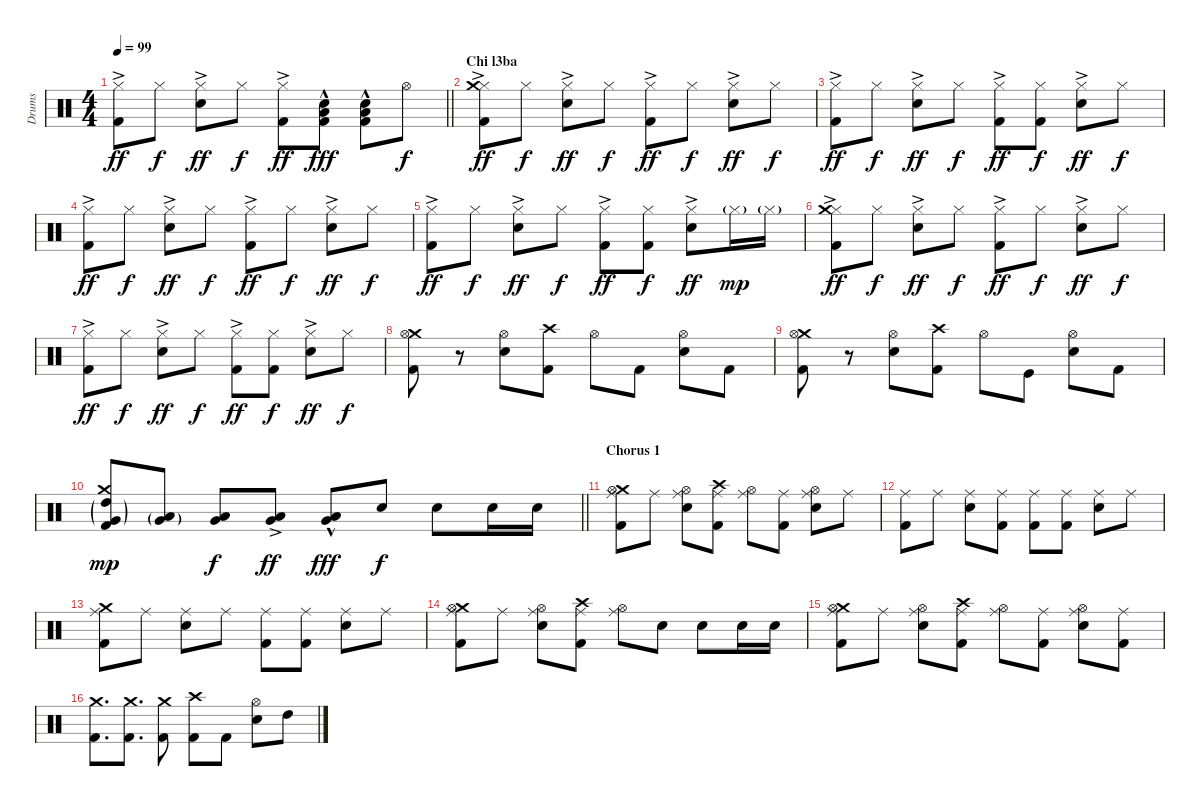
\track ("Drums" "Drums") {instrument percussion}
\staff {score}
\articulation defaults
\ts (4 4)
\tempo 99
\clef neutral
\barLineRight lightlight
\ks c
("Hi-Hat (closed)"{ac} "Kick (hit) 2").8{dy ff} "Hi-Hat (closed)".8{dy f} ("Hi-Hat (closed)"{ac} "Electric Snare (hit)").8{dy ff} "Hi-Hat (closed)".8{dy f} ("Hi-Hat (closed)"{ac} "Kick (hit) 2").8{dy ff} ("Electric Snare (hit)"{hac} "Kick (hit) 2" "Low Floor Tom (hit)").8{dy fff} ("Electric Snare (hit)"{hac} "Kick (hit) 2" "Low Floor Tom (hit)").8 "Hi-Hat (open)".8{dy f} |
\section ("" "Chi l3ba")
("Hi-Hat (closed)"{ac} "Kick (hit) 2" "Crash medium (hit)").8{dy ff} "Hi-Hat (closed)".8{dy f} ("Hi-Hat (closed)"{ac} "Electric Snare (hit)").8{dy ff} "Hi-Hat (closed)".8{dy f} ("Hi-Hat (closed)"{ac} "Kick (hit) 2").8{dy ff} "Hi-Hat (closed)".8{dy f} ("Hi-Hat (closed)"{ac} "Electric Snare (hit)").8{dy ff} "Hi-Hat (closed)".8{dy f} |
("Hi-Hat (closed)"{ac} "Kick (hit) 2").8{dy ff} "Hi-Hat (closed)".8{dy f} ("Hi-Hat (closed)"{ac} "Electric Snare (hit)").8{dy ff} "Hi-Hat (closed)".8{dy f} ("Hi-Hat (closed)"{ac} "Kick (hit) 2").8{dy ff} ("Hi-Hat (closed)" "Kick (hit) 2").8{dy f} ("Hi-Hat (closed)"{ac} "Electric Snare (hit)").8{dy ff} "Hi-Hat (closed)".8{dy f} |
("Hi-Hat (closed)"{ac} "Kick (hit) 2").8{dy ff} "Hi-Hat (closed)".8{dy f} ("Hi-Hat (closed)"{ac} "Electric Snare (hit)").8{dy ff} "Hi-Hat (closed)".8{dy f} ("Hi-Hat (closed)"{ac} "Kick (hit) 2").8{dy ff} "Hi-Hat (closed)".8{dy f} ("Hi-Hat (closed)"{ac} "Electric Snare (hit)").8{dy ff} "Hi-Hat (closed)".8{dy f} |
("Hi-Hat (closed)"{ac} "Kick (hit) 2").8{dy ff} "Hi-Hat (closed)".8{dy f} ("Hi-Hat (closed)"{ac} "Electric Snare (hit)").8{dy ff} "Hi-Hat (closed)".8{dy f} ("Hi-Hat (closed)"{ac} "Kick (hit) 2").8{dy ff} ("Hi-Hat (closed)" "Kick (hit) 2").8{dy f} ("Hi-Hat (closed)"{ac} "Electric Snare (hit)").8{dy ff} "Hi-Hat (closed)"{g}.16{dy mp} "Hi-Hat (closed)"{g}.16 |
("Hi-Hat (closed)"{ac} "Kick (hit) 2" "Crash medium (hit)").8{dy ff} "Hi-Hat (closed)".8{dy f} ("Hi-Hat (closed)"{ac} "Electric Snare (hit)").8{dy ff} "Hi-Hat (closed)".8{dy f} ("Hi-Hat (closed)"{ac} "Kick (hit) 2").8{dy ff} "Hi-Hat (closed)".8{dy f} ("Hi-Hat (closed)"{ac} "Electric Snare (hit)").8{dy ff} "Hi-Hat (closed)".8{dy f} |
("Hi-Hat (closed)"{ac} "Kick (hit) 2").8{dy ff} "Hi-Hat (closed)".8{dy f} ("Hi-Hat (closed)"{ac} "Electric Snare (hit)").8{dy ff} "Hi-Hat (closed)".8{dy f} ("Hi-Hat (closed)"{ac} "Kick (hit) 2").8{dy ff} ("Hi-Hat (closed)" "Kick (hit) 2").8{dy f} ("Hi-Hat (closed)"{ac} "Electric Snare (hit)").8{dy ff} "Hi-Hat (closed)".8{dy f} |
("Crash medium (hit)" "Kick (hit) 2" "Hi-Hat (open)").8 r.8 ("Electric Snare (hit)" "Hi-Hat (open)").8 ("Crash high (hit)" "Kick (hit) 2").8 "Hi-Hat (open)".8 "Kick (hit) 2".8 ("Electric Snare (hit)" "Hi-Hat (open)").8 "Kick (hit) 2".8 |
("Crash medium (hit)" "Kick (hit) 2" "Hi-Hat (open)").8 r.8 ("Electric Snare (hit)" "Hi-Hat (open)").8 ("Crash high (hit)" "Kick (hit) 2").8 "Hi-Hat (open)".8 "Kick (hit)".8 ("Electric Snare (hit)" "Hi-Hat (open)").8 "Kick (hit) 2".8 |
\barLineRight lightlight
("Crash medium (hit)" "Very Low Tom (hit)"{g} "High Tom (hit)"{g} "Kick (hit) 2").8{dy mp} ("Very Low Tom (hit)"{g} "Low Tom (hit)"{g}).8 ("Very Low Tom (hit)" "Low Tom (hit)").8{dy f} ("Very Low Tom (hit)"{ac} "Low Tom (hit)"{ac}).8{dy ff} ("Very Low Tom (hit)"{hac} "Low Floor Tom (hit)"{hac}).8{dy fff} "Electric Snare (hit)".8{dy f} "Electric Snare (hit)".8 "Electric Snare (hit)".16 "Electric Snare (hit)".16 |
\section ("" "Chorus 1")
("Crash medium (hit)" "Kick (hit) 2" "Hi-Hat (open)" "Ride (middle)").8 "Ride (middle)".8 ("Electric Snare (hit)" "Hi-Hat (open)" "Ride (middle)").8 ("Crash high (hit)" "Kick (hit) 2" "Ride (middle)").8 ("Hi-Hat (open)" "Ride (middle)").8 ("Kick (hit) 2" "Ride (middle)").8 ("Electric Snare (hit)" "Hi-Hat (open)" "Ride (middle)").8 "Ride (middle)".8 |
("Kick (hit) 2" "Ride (middle)").8 "Ride (middle)".8 ("Electric Snare (hit)" "Ride (middle)").8 ("Kick (hit) 2" "Ride (middle)").8 ("Kick (hit) 2" "Ride (middle)").8 ("Kick (hit) 2" "Ride (middle)").8 ("Electric Snare (hit)" "Ride (middle)").8 "Ride (middle)".8 |
("Crash medium (hit)" "Kick (hit) 2" "Ride (middle)").8 "Ride (middle)".8 ("Electric Snare (hit)" "Ride (middle)").8 "Ride (middle)".8 ("Kick (hit) 2" "Ride (middle)").8 ("Kick (hit) 2" "Ride (middle)").8 ("Electric Snare (hit)" "Ride (middle)").8 "Ride (middle)".8 |
("Crash medium (hit)" "Kick (hit) 2" "Hi-Hat (open)" "Ride (middle)").8 "Ride (middle)".8 ("Electric Snare (hit)" "Hi-Hat (open)" "Ride (middle)").8 ("Crash high (hit)" "Kick (hit) 2" "Ride (middle)").8 ("Hi-Hat (open)" "Ride (middle)").8 "Electric Snare (hit)".8 "Electric Snare (hit)".8 "Electric Snare (hit)".16 "Electric Snare (hit)".16 |
("Crash medium (hit)" "Kick (hit) 2" "Hi-Hat (open)" "Ride (middle)").8 "Ride (middle)".8 ("Electric Snare (hit)" "Hi-Hat (open)" "Ride (middle)").8 ("Crash high (hit)" "Kick (hit) 2" "Ride (middle)").8 ("Hi-Hat (open)" "Ride (middle)").8 ("Kick (hit) 2" "Ride (middle)").8 ("Electric Snare (hit)" "Hi-Hat (open)" "Ride (middle)").8 ("Kick (hit) 2" "Ride (middle)").8 |
("Crash medium (hit)" "Kick (hit) 2").8{d} ("Crash medium (hit)" "Kick (hit) 2").8{d} ("Crash medium (hit)" "Kick (hit) 2").8 ("Crash high (hit)" "Kick (hit) 2").8 "Kick (hit) 2".8 ("Electric Snare (hit)" "Hi-Hat (open)").8 "High Tom (hit)".8
